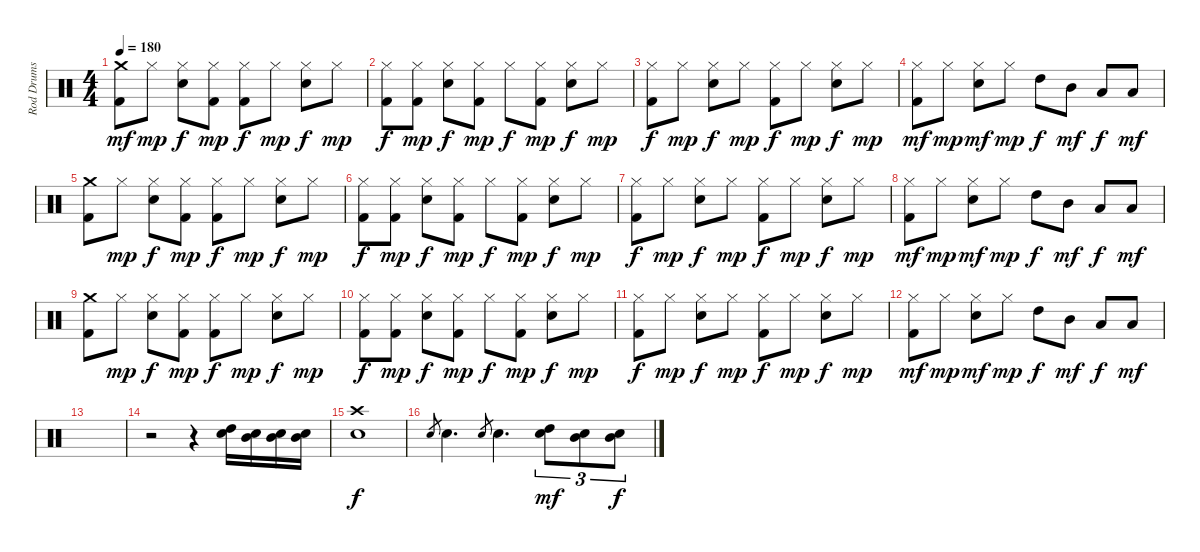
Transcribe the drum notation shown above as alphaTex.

\track ("Rod Drums" "Rod Drums") {instrument percussion}
\staff {score}
\articulation defaults
\ts (4 4)
\tempo 180
\clef neutral
\ks c
("Crash medium (hit)" "Kick (hit) 2").8{dy mf} "Hi-Hat (closed)".8{dy mp} ("Hi-Hat (closed)" "Snare (hit) 2").8{dy f} ("Hi-Hat (closed)" "Kick (hit) 2").8{dy mp} ("Hi-Hat (closed)" "Kick (hit) 2").8{dy f} "Hi-Hat (closed)".8{dy mp} ("Hi-Hat (closed)" "Snare (hit) 2").8{dy f} "Hi-Hat (closed)".8{dy mp} |
("Hi-Hat (closed)" "Kick (hit) 2").8{dy f} ("Hi-Hat (closed)" "Kick (hit) 2").8{dy mp} ("Hi-Hat (closed)" "Snare (hit) 2").8{dy f} ("Hi-Hat (closed)" "Kick (hit) 2").8{dy mp} "Hi-Hat (closed)".8{dy f} ("Hi-Hat (closed)" "Kick (hit) 2").8{dy mp} ("Hi-Hat (closed)" "Snare (hit) 2").8{dy f} "Hi-Hat (closed)".8{dy mp} |
("Hi-Hat (closed)" "Kick (hit) 2").8{dy f} "Hi-Hat (closed)".8{dy mp} ("Hi-Hat (closed)" "Snare (hit) 2").8{dy f} "Hi-Hat (closed)".8{dy mp} ("Hi-Hat (closed)" "Kick (hit) 2").8{dy f} "Hi-Hat (closed)".8{dy mp} ("Hi-Hat (closed)" "Snare (hit) 2").8{dy f} "Hi-Hat (closed)".8{dy mp} |
("Hi-Hat (closed)" "Kick (hit) 2").8{dy mf} "Hi-Hat (closed)".8{dy mp} ("Hi-Hat (closed)" "Snare (hit) 2").8{dy mf} "Hi-Hat (closed)".8{dy mp} "High Tom (hit)".8{dy f} "Mid Tom (hit)".8{dy mf} "Low Tom (hit)".8{dy f} "Low Tom (hit)".8{dy mf} |
("Crash medium (hit)" "Kick (hit) 2").8 "Hi-Hat (closed)".8{dy mp} ("Hi-Hat (closed)" "Snare (hit) 2").8{dy f} ("Hi-Hat (closed)" "Kick (hit) 2").8{dy mp} ("Hi-Hat (closed)" "Kick (hit) 2").8{dy f} "Hi-Hat (closed)".8{dy mp} ("Hi-Hat (closed)" "Snare (hit) 2").8{dy f} "Hi-Hat (closed)".8{dy mp} |
("Hi-Hat (closed)" "Kick (hit) 2").8{dy f} ("Hi-Hat (closed)" "Kick (hit) 2").8{dy mp} ("Hi-Hat (closed)" "Snare (hit) 2").8{dy f} ("Hi-Hat (closed)" "Kick (hit) 2").8{dy mp} "Hi-Hat (closed)".8{dy f} ("Hi-Hat (closed)" "Kick (hit) 2").8{dy mp} ("Hi-Hat (closed)" "Snare (hit) 2").8{dy f} "Hi-Hat (closed)".8{dy mp} |
("Hi-Hat (closed)" "Kick (hit) 2").8{dy f} "Hi-Hat (closed)".8{dy mp} ("Hi-Hat (closed)" "Snare (hit) 2").8{dy f} "Hi-Hat (closed)".8{dy mp} ("Hi-Hat (closed)" "Kick (hit) 2").8{dy f} "Hi-Hat (closed)".8{dy mp} ("Hi-Hat (closed)" "Snare (hit) 2").8{dy f} "Hi-Hat (closed)".8{dy mp} |
("Hi-Hat (closed)" "Kick (hit) 2").8{dy mf} "Hi-Hat (closed)".8{dy mp} ("Hi-Hat (closed)" "Snare (hit) 2").8{dy mf} "Hi-Hat (closed)".8{dy mp} "High Tom (hit)".8{dy f} "Mid Tom (hit)".8{dy mf} "Low Tom (hit)".8{dy f} "Low Tom (hit)".8{dy mf} |
("Crash medium (hit)" "Kick (hit) 2").8 "Hi-Hat (closed)".8{dy mp} ("Hi-Hat (closed)" "Snare (hit) 2").8{dy f} ("Hi-Hat (closed)" "Kick (hit) 2").8{dy mp} ("Hi-Hat (closed)" "Kick (hit) 2").8{dy f} "Hi-Hat (closed)".8{dy mp} ("Hi-Hat (closed)" "Snare (hit) 2").8{dy f} "Hi-Hat (closed)".8{dy mp} |
("Hi-Hat (closed)" "Kick (hit) 2").8{dy f} ("Hi-Hat (closed)" "Kick (hit) 2").8{dy mp} ("Hi-Hat (closed)" "Snare (hit) 2").8{dy f} ("Hi-Hat (closed)" "Kick (hit) 2").8{dy mp} "Hi-Hat (closed)".8{dy f} ("Hi-Hat (closed)" "Kick (hit) 2").8{dy mp} ("Hi-Hat (closed)" "Snare (hit) 2").8{dy f} "Hi-Hat (closed)".8{dy mp} |
("Hi-Hat (closed)" "Kick (hit) 2").8{dy f} "Hi-Hat (closed)".8{dy mp} ("Hi-Hat (closed)" "Snare (hit) 2").8{dy f} "Hi-Hat (closed)".8{dy mp} ("Hi-Hat (closed)" "Kick (hit) 2").8{dy f} "Hi-Hat (closed)".8{dy mp} ("Hi-Hat (closed)" "Snare (hit) 2").8{dy f} "Hi-Hat (closed)".8{dy mp} |
("Hi-Hat (closed)" "Kick (hit) 2").8{dy mf} "Hi-Hat (closed)".8{dy mp} ("Hi-Hat (closed)" "Snare (hit) 2").8{dy mf} "Hi-Hat (closed)".8{dy mp} "High Tom (hit)".8{dy f} "Mid Tom (hit)".8{dy mf} "Low Tom (hit)".8{dy f} "Low Tom (hit)".8{dy mf} |
|
r.2 r.4 ("High Tom (hit)" "Snare (hit) 2").16 ("Mid Tom (hit)" "Snare (hit) 2").16 ("Mid Tom (hit)" "Snare (hit) 2").16 ("Mid Tom (hit)" "Snare (hit) 2").16 |
("Crash high (hit)" "Snare (hit) 2").1{dy f} |
"Snare (hit) 2".8{gr} "Snare (hit) 2".4{d} "Snare (hit) 2".8{gr} "Snare (hit) 2".4{d} ("High Tom (hit)" "Snare (hit) 2").8{tu (3 2) dy mf} ("Mid Tom (hit)" "Snare (hit) 2").8{tu (3 2)} ("Mid Tom (hit)" "Snare (hit) 2").8{tu (3 2) dy f}
